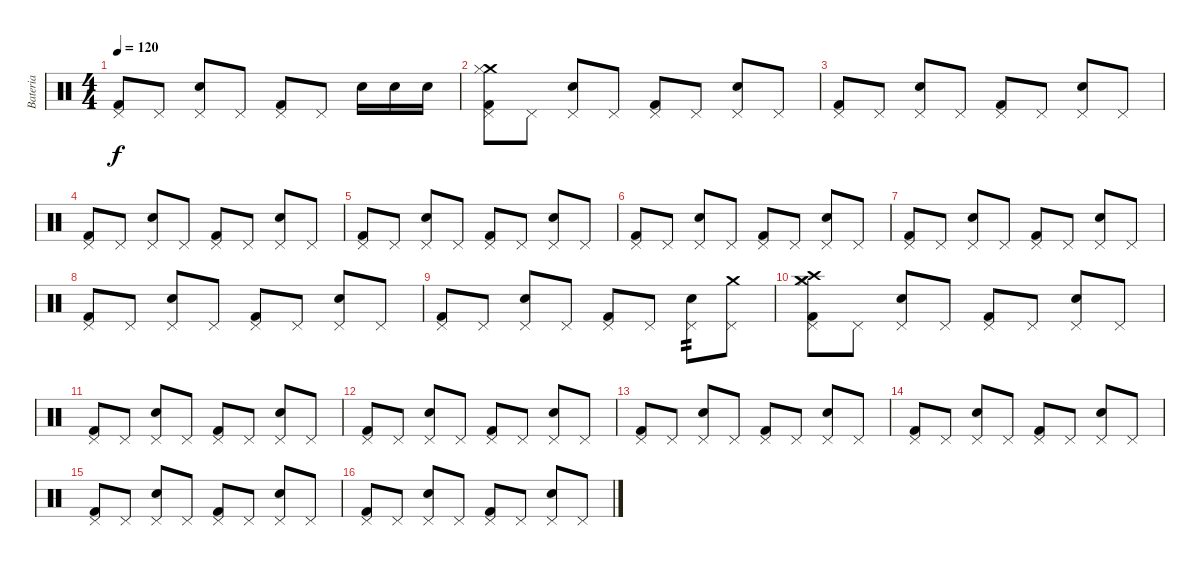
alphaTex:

\track ("Bateria" "Bateria") {instrument percussion}
\staff {score}
\articulation defaults
\ts (4 4)
\tempo 120
\clef neutral
\ks c
("Pedal Hi-Hat (hit)" "Kick (hit) 2").8{dy f} "Pedal Hi-Hat (hit)".8 ("Pedal Hi-Hat (hit)" "Electric Snare (hit)").8 "Pedal Hi-Hat (hit)".8 ("Pedal Hi-Hat (hit)" "Kick (hit) 2").8 "Pedal Hi-Hat (hit)".8 "Electric Snare (hit)".16 "Electric Snare (hit)".16 "Electric Snare (hit)".16 |
("Pedal Hi-Hat (hit)" "Kick (hit) 2" "Crash medium (hit)" "Hi-Hat (closed)").8 "Pedal Hi-Hat (hit)".8 ("Pedal Hi-Hat (hit)" "Electric Snare (hit)").8 "Pedal Hi-Hat (hit)".8 ("Pedal Hi-Hat (hit)" "Kick (hit) 2").8 "Pedal Hi-Hat (hit)".8 ("Pedal Hi-Hat (hit)" "Electric Snare (hit)").8 "Pedal Hi-Hat (hit)".8 |
("Pedal Hi-Hat (hit)" "Kick (hit) 2").8 "Pedal Hi-Hat (hit)".8 ("Pedal Hi-Hat (hit)" "Electric Snare (hit)").8 "Pedal Hi-Hat (hit)".8 ("Pedal Hi-Hat (hit)" "Kick (hit) 2").8 "Pedal Hi-Hat (hit)".8 ("Pedal Hi-Hat (hit)" "Electric Snare (hit)").8 "Pedal Hi-Hat (hit)".8 |
("Pedal Hi-Hat (hit)" "Kick (hit) 2").8 "Pedal Hi-Hat (hit)".8 ("Pedal Hi-Hat (hit)" "Electric Snare (hit)").8 "Pedal Hi-Hat (hit)".8 ("Pedal Hi-Hat (hit)" "Kick (hit) 2").8 "Pedal Hi-Hat (hit)".8 ("Pedal Hi-Hat (hit)" "Electric Snare (hit)").8 "Pedal Hi-Hat (hit)".8 |
("Pedal Hi-Hat (hit)" "Kick (hit) 2").8 "Pedal Hi-Hat (hit)".8 ("Pedal Hi-Hat (hit)" "Electric Snare (hit)").8 "Pedal Hi-Hat (hit)".8 ("Pedal Hi-Hat (hit)" "Kick (hit) 2").8 "Pedal Hi-Hat (hit)".8 ("Pedal Hi-Hat (hit)" "Electric Snare (hit)").8 "Pedal Hi-Hat (hit)".8 |
("Pedal Hi-Hat (hit)" "Kick (hit) 2").8 "Pedal Hi-Hat (hit)".8 ("Pedal Hi-Hat (hit)" "Electric Snare (hit)").8 "Pedal Hi-Hat (hit)".8 ("Pedal Hi-Hat (hit)" "Kick (hit) 2").8 "Pedal Hi-Hat (hit)".8 ("Pedal Hi-Hat (hit)" "Electric Snare (hit)").8 "Pedal Hi-Hat (hit)".8 |
("Pedal Hi-Hat (hit)" "Kick (hit) 2").8 "Pedal Hi-Hat (hit)".8 ("Pedal Hi-Hat (hit)" "Electric Snare (hit)").8 "Pedal Hi-Hat (hit)".8 ("Pedal Hi-Hat (hit)" "Kick (hit) 2").8 "Pedal Hi-Hat (hit)".8 ("Pedal Hi-Hat (hit)" "Electric Snare (hit)").8 "Pedal Hi-Hat (hit)".8 |
("Pedal Hi-Hat (hit)" "Kick (hit) 2").8 "Pedal Hi-Hat (hit)".8 ("Pedal Hi-Hat (hit)" "Electric Snare (hit)").8 "Pedal Hi-Hat (hit)".8 ("Pedal Hi-Hat (hit)" "Kick (hit) 2").8 "Pedal Hi-Hat (hit)".8 ("Pedal Hi-Hat (hit)" "Electric Snare (hit)").8 "Pedal Hi-Hat (hit)".8 |
("Pedal Hi-Hat (hit)" "Kick (hit) 2").8 "Pedal Hi-Hat (hit)".8 ("Pedal Hi-Hat (hit)" "Electric Snare (hit)").8 "Pedal Hi-Hat (hit)".8 ("Pedal Hi-Hat (hit)" "Kick (hit) 2").8 "Pedal Hi-Hat (hit)".8 ("Pedal Hi-Hat (hit)" "Electric Snare (hit)").8{tp 2} ("Pedal Hi-Hat (hit)" "Crash medium (hit)").8 |
("Pedal Hi-Hat (hit)" "Kick (hit) 2" "Crash medium (hit)" "Hi-Hat (closed)" "Crash high (hit)").8 "Pedal Hi-Hat (hit)".8 ("Pedal Hi-Hat (hit)" "Electric Snare (hit)").8 "Pedal Hi-Hat (hit)".8 ("Pedal Hi-Hat (hit)" "Kick (hit) 2").8 "Pedal Hi-Hat (hit)".8 ("Pedal Hi-Hat (hit)" "Electric Snare (hit)").8 "Pedal Hi-Hat (hit)".8 |
("Pedal Hi-Hat (hit)" "Kick (hit) 2").8 "Pedal Hi-Hat (hit)".8 ("Pedal Hi-Hat (hit)" "Electric Snare (hit)").8 "Pedal Hi-Hat (hit)".8 ("Pedal Hi-Hat (hit)" "Kick (hit) 2").8 "Pedal Hi-Hat (hit)".8 ("Pedal Hi-Hat (hit)" "Electric Snare (hit)").8 "Pedal Hi-Hat (hit)".8 |
("Pedal Hi-Hat (hit)" "Kick (hit) 2").8 "Pedal Hi-Hat (hit)".8 ("Pedal Hi-Hat (hit)" "Electric Snare (hit)").8 "Pedal Hi-Hat (hit)".8 ("Pedal Hi-Hat (hit)" "Kick (hit) 2").8 "Pedal Hi-Hat (hit)".8 ("Pedal Hi-Hat (hit)" "Electric Snare (hit)").8 "Pedal Hi-Hat (hit)".8 |
("Pedal Hi-Hat (hit)" "Kick (hit) 2").8 "Pedal Hi-Hat (hit)".8 ("Pedal Hi-Hat (hit)" "Electric Snare (hit)").8 "Pedal Hi-Hat (hit)".8 ("Pedal Hi-Hat (hit)" "Kick (hit) 2").8 "Pedal Hi-Hat (hit)".8 ("Pedal Hi-Hat (hit)" "Electric Snare (hit)").8 "Pedal Hi-Hat (hit)".8 |
("Pedal Hi-Hat (hit)" "Kick (hit) 2").8 "Pedal Hi-Hat (hit)".8 ("Pedal Hi-Hat (hit)" "Electric Snare (hit)").8 "Pedal Hi-Hat (hit)".8 ("Pedal Hi-Hat (hit)" "Kick (hit) 2").8 "Pedal Hi-Hat (hit)".8 ("Pedal Hi-Hat (hit)" "Electric Snare (hit)").8 "Pedal Hi-Hat (hit)".8 |
("Pedal Hi-Hat (hit)" "Kick (hit) 2").8 "Pedal Hi-Hat (hit)".8 ("Pedal Hi-Hat (hit)" "Electric Snare (hit)").8 "Pedal Hi-Hat (hit)".8 ("Pedal Hi-Hat (hit)" "Kick (hit) 2").8 "Pedal Hi-Hat (hit)".8 ("Pedal Hi-Hat (hit)" "Electric Snare (hit)").8 "Pedal Hi-Hat (hit)".8 |
("Pedal Hi-Hat (hit)" "Kick (hit) 2").8 "Pedal Hi-Hat (hit)".8 ("Pedal Hi-Hat (hit)" "Electric Snare (hit)").8 "Pedal Hi-Hat (hit)".8 ("Pedal Hi-Hat (hit)" "Kick (hit) 2").8 "Pedal Hi-Hat (hit)".8 ("Pedal Hi-Hat (hit)" "Electric Snare (hit)").8 "Pedal Hi-Hat (hit)".8
